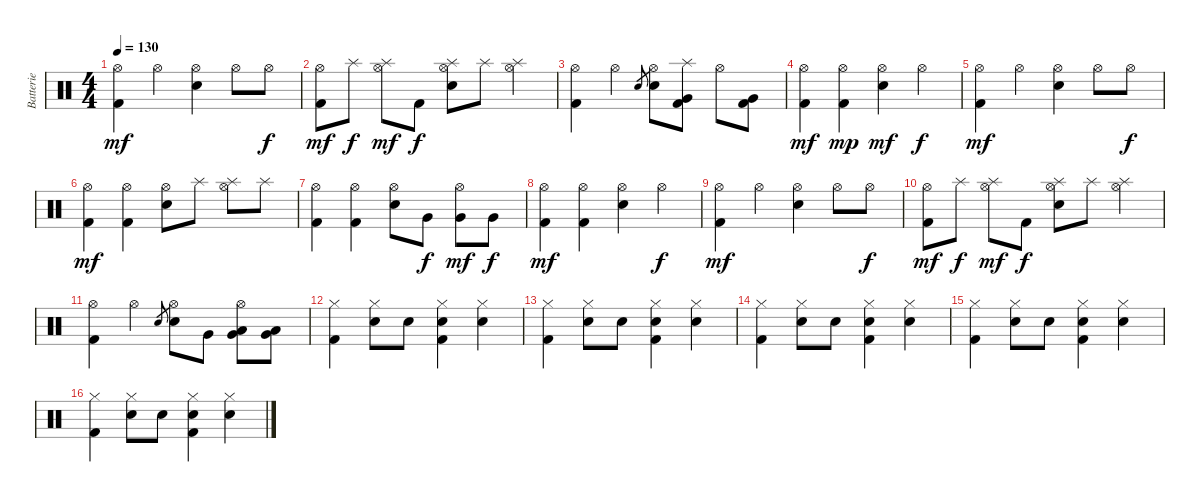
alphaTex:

\track ("Batterie" "Batterie") {instrument percussion}
\staff {score}
\articulation defaults
\ts (4 4)
\tempo 130
\clef neutral
\ks c
("Hi-Hat (open)" "Kick (hit) 2").4{dy mf} "Hi-Hat (open)".4 ("Hi-Hat (open)" "Electric Snare (hit)").4 "Hi-Hat (open)".8 "Hi-Hat (open)".8{dy f} |
("Hi-Hat (open)" "Kick (hit) 2").8{dy mf} "Splash (hit)".8{dy f} ("Hi-Hat (open)" "Splash (hit)").8{dy mf} "Kick (hit) 2".8{dy f} ("Hi-Hat (open)" "Splash (hit)" "Electric Snare (hit)").8 "Splash (hit)".8 ("Hi-Hat (open)" "Splash (hit)").4 |
("Hi-Hat (open)" "Kick (hit) 2").4 "Hi-Hat (open)".4 "Electric Snare (hit)".8{gr} ("Hi-Hat (open)" "Electric Snare (hit)").8 ("Splash (hit)" "Very Low Tom (hit)" "Kick (hit) 2").8 "Hi-Hat (open)".8 ("Very Low Tom (hit)" "Kick (hit) 2").8 |
("Hi-Hat (open)" "Kick (hit) 2").4{dy mf} ("Hi-Hat (open)" "Kick (hit) 2").4{dy mp} ("Hi-Hat (open)" "Electric Snare (hit)").4{dy mf} "Hi-Hat (open)".4{dy f} |
("Hi-Hat (open)" "Kick (hit) 2").4{dy mf} "Hi-Hat (open)".4 ("Hi-Hat (open)" "Electric Snare (hit)").4 "Hi-Hat (open)".8 "Hi-Hat (open)".8{dy f} |
("Hi-Hat (open)" "Kick (hit) 2").4{dy mf} ("Hi-Hat (open)" "Kick (hit) 2").4 ("Hi-Hat (open)" "Electric Snare (hit)").8 "Splash (hit)".8 ("Hi-Hat (open)" "Splash (hit)").8 "Splash (hit)".8 |
("Hi-Hat (open)" "Kick (hit) 2").4 ("Hi-Hat (open)" "Kick (hit) 2").4 ("Hi-Hat (open)" "Electric Snare (hit)").8 "Very Low Tom (hit)".8{dy f} ("Hi-Hat (open)" "Very Low Tom (hit)").8{dy mf} "Very Low Tom (hit)".8{dy f} |
("Hi-Hat (open)" "Kick (hit) 2").4{dy mf} ("Hi-Hat (open)" "Kick (hit) 2").4 ("Hi-Hat (open)" "Electric Snare (hit)").4 "Hi-Hat (open)".4{dy f} |
("Hi-Hat (open)" "Kick (hit) 2").4{dy mf} "Hi-Hat (open)".4 ("Hi-Hat (open)" "Electric Snare (hit)").4 "Hi-Hat (open)".8 "Hi-Hat (open)".8{dy f} |
("Hi-Hat (open)" "Kick (hit) 2").8{dy mf} "Splash (hit)".8{dy f} ("Hi-Hat (open)" "Splash (hit)").8{dy mf} "Kick (hit) 2".8{dy f} ("Hi-Hat (open)" "Splash (hit)" "Electric Snare (hit)").8 "Splash (hit)".8 ("Hi-Hat (open)" "Splash (hit)").4 |
("Hi-Hat (open)" "Kick (hit) 2").4 "Hi-Hat (open)".4 "Electric Snare (hit)".8{gr} ("Hi-Hat (open)" "Electric Snare (hit)").8 "Very Low Tom (hit)".8 ("Hi-Hat (open)" "Very Low Tom (hit)" "Low Tom (hit)").8 ("Very Low Tom (hit)" "Low Tom (hit)").8 |
("Hi-Hat (closed)" "Kick (hit) 2").4 ("Hi-Hat (closed)" "Metronome (bell)").8 "Metronome (bell)".8 ("Hi-Hat (closed)" "Electric Snare (hit)" "Kick (hit) 2").4 ("Hi-Hat (closed)" "Snare (hit) 2").4 |
("Hi-Hat (closed)" "Kick (hit) 2").4 ("Hi-Hat (closed)" "Metronome (bell)").8 "Metronome (bell)".8 ("Hi-Hat (closed)" "Electric Snare (hit)" "Kick (hit) 2").4 ("Hi-Hat (closed)" "Snare (hit) 2").4 |
("Hi-Hat (closed)" "Kick (hit) 2").4 ("Hi-Hat (closed)" "Metronome (bell)").8 "Metronome (bell)".8 ("Hi-Hat (closed)" "Electric Snare (hit)" "Kick (hit) 2").4 ("Hi-Hat (closed)" "Snare (hit) 2").4 |
("Hi-Hat (closed)" "Kick (hit) 2").4 ("Hi-Hat (closed)" "Metronome (bell)").8 "Metronome (bell)".8 ("Hi-Hat (closed)" "Electric Snare (hit)" "Kick (hit) 2").4 ("Hi-Hat (closed)" "Snare (hit) 2").4 |
("Hi-Hat (closed)" "Kick (hit) 2").4 ("Hi-Hat (closed)" "Metronome (bell)").8 "Metronome (bell)".8 ("Hi-Hat (closed)" "Electric Snare (hit)" "Kick (hit) 2").4 ("Hi-Hat (closed)" "Snare (hit) 2").4
